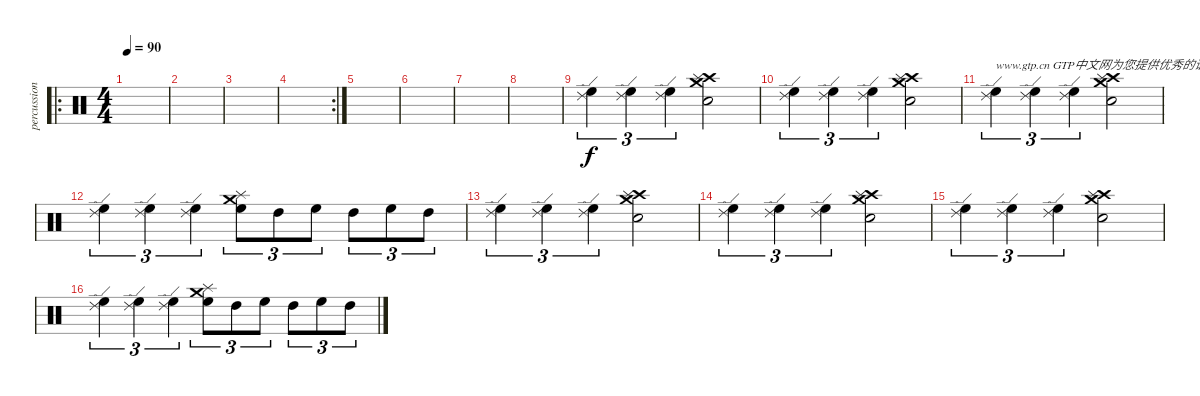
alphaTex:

\track ("percussion" "percussion") {instrument percussion}
\staff {score}
\articulation defaults
\ro
\ts (4 4)
\tempo 90
\clef neutral
\ks c
|
|
|
\rc 2
|
|
|
|
|
("Ride (edge) 2" "High Floor Tom (hit)").4{tu (3 2)} ("Ride (edge) 2" "High Floor Tom (hit)").4{tu (3 2)} ("Ride (edge) 2" "High Floor Tom (hit)").4{tu (3 2)} ("Crash high (hit)" "Crash medium (hit)" "Splash (hit)" "Snare (hit) 2").2 |
("Ride (edge) 2" "High Floor Tom (hit)").4{tu (3 2)} ("Ride (edge) 2" "High Floor Tom (hit)").4{tu (3 2)} ("Ride (edge) 2" "High Floor Tom (hit)").4{tu (3 2)} ("Crash high (hit)" "Crash medium (hit)" "Splash (hit)" "Snare (hit) 2").2 |
("Ride (edge) 2" "High Floor Tom (hit)").4{tu (3 2) txt "www.gtp.cn GTP中文网为您提供优秀的谱子"} ("Ride (edge) 2" "High Floor Tom (hit)").4{tu (3 2)} ("Ride (edge) 2" "High Floor Tom (hit)").4{tu (3 2)} ("Crash high (hit)" "Crash medium (hit)" "Splash (hit)" "Snare (hit) 2").2 |
("Ride (edge) 2" "High Floor Tom (hit)").4{tu (3 2)} ("Ride (edge) 2" "High Floor Tom (hit)").4{tu (3 2)} ("Ride (edge) 2" "High Floor Tom (hit)").4{tu (3 2)} ("Crash medium (hit)" "Splash (hit)" "High Floor Tom (hit)").8{tu (3 2)} "High Tom (hit)".8{tu (3 2)} "High Floor Tom (hit)".8{tu (3 2)} "High Tom (hit)".8{tu (3 2)} "High Floor Tom (hit)".8{tu (3 2)} "High Tom (hit)".8{tu (3 2)} |
("Ride (edge) 2" "High Floor Tom (hit)").4{tu (3 2)} ("Ride (edge) 2" "High Floor Tom (hit)").4{tu (3 2)} ("Ride (edge) 2" "High Floor Tom (hit)").4{tu (3 2)} ("Crash high (hit)" "Crash medium (hit)" "Splash (hit)" "Snare (hit) 2").2 |
("Ride (edge) 2" "High Floor Tom (hit)").4{tu (3 2)} ("Ride (edge) 2" "High Floor Tom (hit)").4{tu (3 2)} ("Ride (edge) 2" "High Floor Tom (hit)").4{tu (3 2)} ("Crash high (hit)" "Crash medium (hit)" "Splash (hit)" "Snare (hit) 2").2 |
("Ride (edge) 2" "High Floor Tom (hit)").4{tu (3 2)} ("Ride (edge) 2" "High Floor Tom (hit)").4{tu (3 2)} ("Ride (edge) 2" "High Floor Tom (hit)").4{tu (3 2)} ("Crash high (hit)" "Crash medium (hit)" "Splash (hit)" "Snare (hit) 2").2 |
("Ride (edge) 2" "High Floor Tom (hit)").4{tu (3 2)} ("Ride (edge) 2" "High Floor Tom (hit)").4{tu (3 2)} ("Ride (edge) 2" "High Floor Tom (hit)").4{tu (3 2)} ("Crash medium (hit)" "Splash (hit)" "High Floor Tom (hit)").8{tu (3 2)} "High Tom (hit)".8{tu (3 2)} "High Floor Tom (hit)".8{tu (3 2)} "High Tom (hit)".8{tu (3 2)} "High Floor Tom (hit)".8{tu (3 2)} "High Tom (hit)".8{tu (3 2)}
